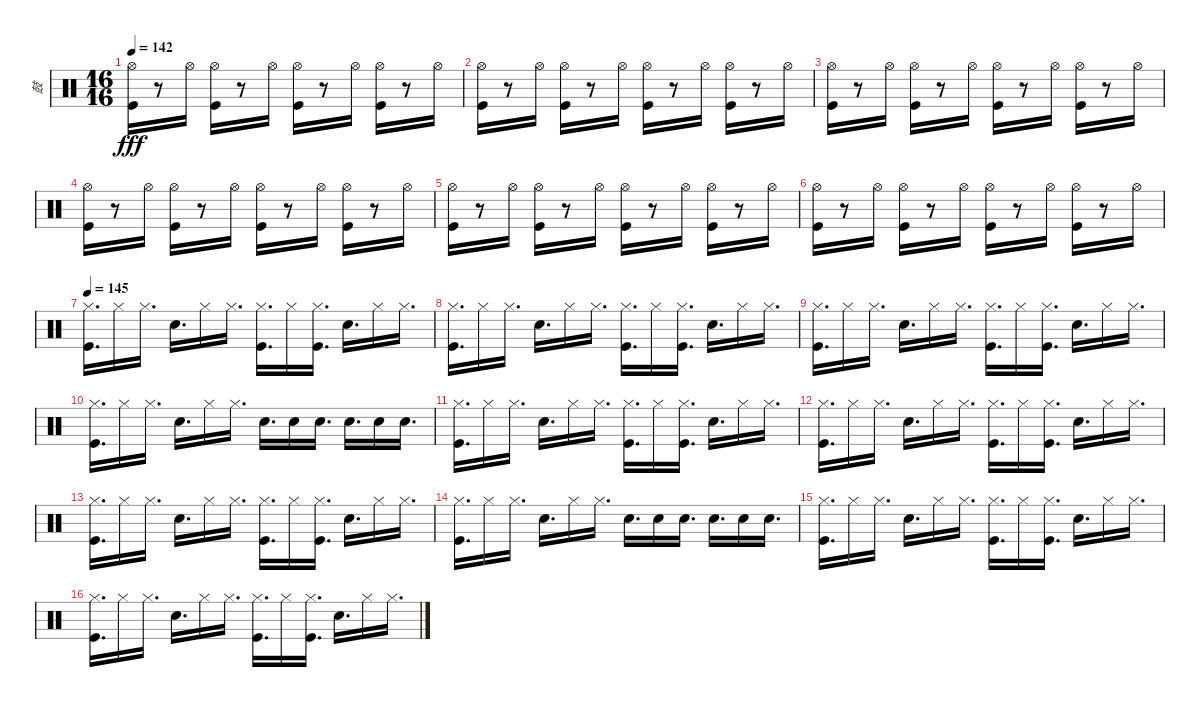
\track ("鼓" "鼓") {instrument percussion}
\staff {score}
\articulation defaults
\ts (16 16)
\tempo 142
\clef neutral
\ks c
("Hi-Hat (open)" "Kick (hit)").16{dy fff} r.8 "Hi-Hat (open)".16 ("Hi-Hat (open)" "Kick (hit)").16 r.8 "Hi-Hat (open)".16 ("Hi-Hat (open)" "Kick (hit)").16 r.8 "Hi-Hat (open)".16 ("Hi-Hat (open)" "Kick (hit)").16 r.8 "Hi-Hat (open)".16 |
("Hi-Hat (open)" "Kick (hit)").16 r.8 "Hi-Hat (open)".16 ("Hi-Hat (open)" "Kick (hit)").16 r.8 "Hi-Hat (open)".16 ("Hi-Hat (open)" "Kick (hit)").16 r.8 "Hi-Hat (open)".16 ("Hi-Hat (open)" "Kick (hit)").16 r.8 "Hi-Hat (open)".16 |
("Hi-Hat (open)" "Kick (hit)").16 r.8 "Hi-Hat (open)".16 ("Hi-Hat (open)" "Kick (hit)").16 r.8 "Hi-Hat (open)".16 ("Hi-Hat (open)" "Kick (hit)").16 r.8 "Hi-Hat (open)".16 ("Hi-Hat (open)" "Kick (hit)").16 r.8 "Hi-Hat (open)".16 |
("Hi-Hat (open)" "Kick (hit)").16 r.8 "Hi-Hat (open)".16 ("Hi-Hat (open)" "Kick (hit)").16 r.8 "Hi-Hat (open)".16 ("Hi-Hat (open)" "Kick (hit)").16 r.8 "Hi-Hat (open)".16 ("Hi-Hat (open)" "Kick (hit)").16 r.8 "Hi-Hat (open)".16 |
("Hi-Hat (open)" "Kick (hit)").16 r.8 "Hi-Hat (open)".16 ("Hi-Hat (open)" "Kick (hit)").16 r.8 "Hi-Hat (open)".16 ("Hi-Hat (open)" "Kick (hit)").16 r.8 "Hi-Hat (open)".16 ("Hi-Hat (open)" "Kick (hit)").16 r.8 "Hi-Hat (open)".16 |
("Hi-Hat (open)" "Kick (hit)").16 r.8 "Hi-Hat (open)".16 ("Hi-Hat (open)" "Kick (hit)").16 r.8 "Hi-Hat (open)".16 ("Hi-Hat (open)" "Kick (hit)").16 r.8 "Hi-Hat (open)".16 ("Hi-Hat (open)" "Kick (hit)").16 r.8 "Hi-Hat (open)".16 |
\tempo 145
("Hi-Hat (closed)" "Kick (hit)").16{d} "Hi-Hat (closed)".16 "Hi-Hat (closed)".16{d} "Snare (hit) 2".16{d} "Hi-Hat (closed)".16 "Hi-Hat (closed)".16{d} ("Hi-Hat (closed)" "Kick (hit)").16{d} "Hi-Hat (closed)".16 ("Hi-Hat (closed)" "Kick (hit)").16{d} "Snare (hit) 2".16{d} "Hi-Hat (closed)".16 "Hi-Hat (closed)".16{d} |
("Hi-Hat (closed)" "Kick (hit)").16{d} "Hi-Hat (closed)".16 "Hi-Hat (closed)".16{d} "Snare (hit) 2".16{d} "Hi-Hat (closed)".16 "Hi-Hat (closed)".16{d} ("Hi-Hat (closed)" "Kick (hit)").16{d} "Hi-Hat (closed)".16 ("Hi-Hat (closed)" "Kick (hit)").16{d} "Snare (hit) 2".16{d} "Hi-Hat (closed)".16 "Hi-Hat (closed)".16{d} |
("Hi-Hat (closed)" "Kick (hit)").16{d} "Hi-Hat (closed)".16 "Hi-Hat (closed)".16{d} "Snare (hit) 2".16{d} "Hi-Hat (closed)".16 "Hi-Hat (closed)".16{d} ("Hi-Hat (closed)" "Kick (hit)").16{d} "Hi-Hat (closed)".16 ("Hi-Hat (closed)" "Kick (hit)").16{d} "Snare (hit) 2".16{d} "Hi-Hat (closed)".16 "Hi-Hat (closed)".16{d} |
("Hi-Hat (closed)" "Kick (hit)").16{d} "Hi-Hat (closed)".16 "Hi-Hat (closed)".16{d} "Snare (hit) 2".16{d} "Hi-Hat (closed)".16 "Hi-Hat (closed)".16{d} "Snare (hit) 2".16{d} "Snare (hit) 2".16 "Snare (hit) 2".16{d} "Snare (hit) 2".16{d} "Snare (hit) 2".16 "Snare (hit) 2".16{d} |
("Hi-Hat (closed)" "Kick (hit)").16{d} "Hi-Hat (closed)".16 "Hi-Hat (closed)".16{d} "Snare (hit) 2".16{d} "Hi-Hat (closed)".16 "Hi-Hat (closed)".16{d} ("Hi-Hat (closed)" "Kick (hit)").16{d} "Hi-Hat (closed)".16 ("Hi-Hat (closed)" "Kick (hit)").16{d} "Snare (hit) 2".16{d} "Hi-Hat (closed)".16 "Hi-Hat (closed)".16{d} |
("Hi-Hat (closed)" "Kick (hit)").16{d} "Hi-Hat (closed)".16 "Hi-Hat (closed)".16{d} "Snare (hit) 2".16{d} "Hi-Hat (closed)".16 "Hi-Hat (closed)".16{d} ("Hi-Hat (closed)" "Kick (hit)").16{d} "Hi-Hat (closed)".16 ("Hi-Hat (closed)" "Kick (hit)").16{d} "Snare (hit) 2".16{d} "Hi-Hat (closed)".16 "Hi-Hat (closed)".16{d} |
("Hi-Hat (closed)" "Kick (hit)").16{d} "Hi-Hat (closed)".16 "Hi-Hat (closed)".16{d} "Snare (hit) 2".16{d} "Hi-Hat (closed)".16 "Hi-Hat (closed)".16{d} ("Hi-Hat (closed)" "Kick (hit)").16{d} "Hi-Hat (closed)".16 ("Hi-Hat (closed)" "Kick (hit)").16{d} "Snare (hit) 2".16{d} "Hi-Hat (closed)".16 "Hi-Hat (closed)".16{d} |
("Hi-Hat (closed)" "Kick (hit)").16{d} "Hi-Hat (closed)".16 "Hi-Hat (closed)".16{d} "Snare (hit) 2".16{d} "Hi-Hat (closed)".16 "Hi-Hat (closed)".16{d} "Snare (hit) 2".16{d} "Snare (hit) 2".16 "Snare (hit) 2".16{d} "Snare (hit) 2".16{d} "Snare (hit) 2".16 "Snare (hit) 2".16{d} |
("Hi-Hat (closed)" "Kick (hit)").16{d} "Hi-Hat (closed)".16 "Hi-Hat (closed)".16{d} "Snare (hit) 2".16{d} "Hi-Hat (closed)".16 "Hi-Hat (closed)".16{d} ("Hi-Hat (closed)" "Kick (hit)").16{d} "Hi-Hat (closed)".16 ("Hi-Hat (closed)" "Kick (hit)").16{d} "Snare (hit) 2".16{d} "Hi-Hat (closed)".16 "Hi-Hat (closed)".16{d} |
("Hi-Hat (closed)" "Kick (hit)").16{d} "Hi-Hat (closed)".16 "Hi-Hat (closed)".16{d} "Snare (hit) 2".16{d} "Hi-Hat (closed)".16 "Hi-Hat (closed)".16{d} ("Hi-Hat (closed)" "Kick (hit)").16{d} "Hi-Hat (closed)".16 ("Hi-Hat (closed)" "Kick (hit)").16{d} "Snare (hit) 2".16{d} "Hi-Hat (closed)".16 "Hi-Hat (closed)".16{d}
